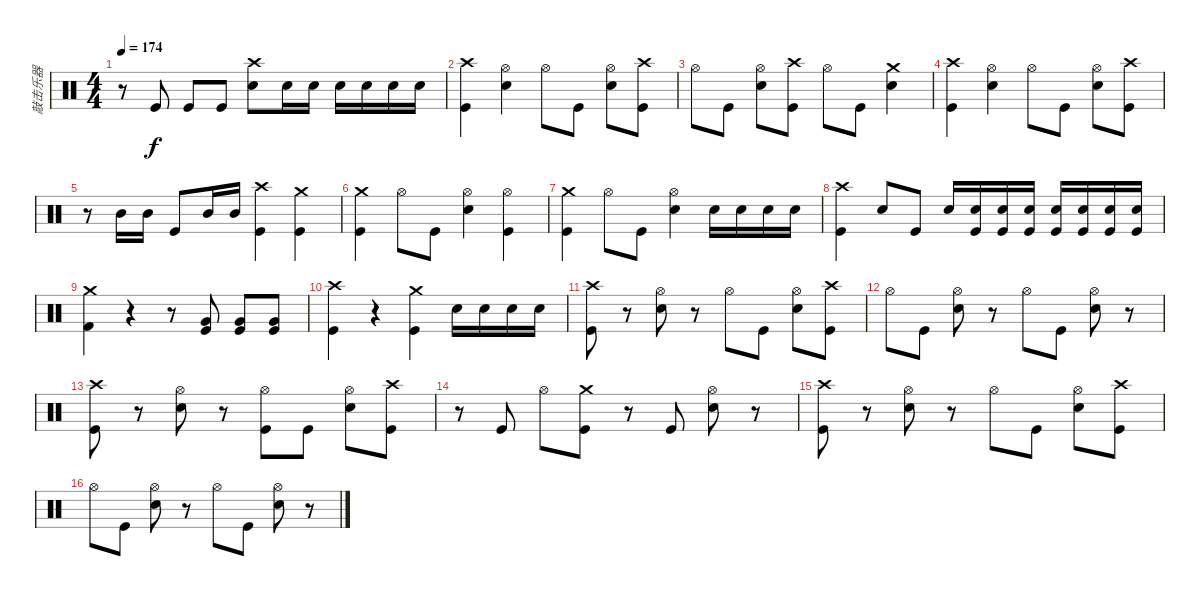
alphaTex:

\track ("敲击乐器" "敲击乐器") {instrument percussion}
\staff {score}
\articulation defaults
\ts (4 4)
\tempo 174
\clef neutral
\ks c
r.8{dy f} "Kick (hit)".8 "Kick (hit)".8 "Kick (hit)".8 ("Crash high (hit)" "Electric Snare (hit)").8 "Electric Snare (hit)".16 "Electric Snare (hit)".16 "Electric Snare (hit)".16 "Electric Snare (hit)".16 "Electric Snare (hit)".16 "Electric Snare (hit)".16 |
("Crash high (hit)" "Kick (hit)").4 ("Hi-Hat (open)" "Electric Snare (hit)").4 "Hi-Hat (open)".8 "Kick (hit)".8 ("Electric Snare (hit)" "Hi-Hat (open)").8 ("Kick (hit)" "Crash high (hit)").8 |
"Hi-Hat (open)".8 "Kick (hit)".8 ("Hi-Hat (open)" "Electric Snare (hit)").8 ("Kick (hit)" "Crash high (hit)").8 "Hi-Hat (open)".8 "Kick (hit)".8 ("Electric Snare (hit)" "Crash medium (hit)").4 |
("Crash high (hit)" "Kick (hit)").4 ("Hi-Hat (open)" "Electric Snare (hit)").4 "Hi-Hat (open)".8 "Kick (hit)".8 ("Electric Snare (hit)" "Hi-Hat (open)").8 ("Kick (hit)" "Crash high (hit)").8 |
r.8 "Mid Tom (hit)".16 "Mid Tom (hit)".16 "Kick (hit)".8 "Mid Tom (hit)".16 "Mid Tom (hit)".16 ("Kick (hit)" "Crash high (hit)").4 ("Kick (hit)" "Crash medium (hit)").4 |
("Kick (hit)" "Crash medium (hit)").4 "Hi-Hat (open)".8 "Kick (hit)".8 ("Hi-Hat (open)" "Electric Snare (hit)").4 ("Kick (hit)" "Hi-Hat (open)").4 |
("Kick (hit)" "Crash medium (hit)").4 "Hi-Hat (open)".8 "Kick (hit)".8 ("Hi-Hat (open)" "Electric Snare (hit)").4 "Electric Snare (hit)".16 "Electric Snare (hit)".16 "Electric Snare (hit)".16 "Electric Snare (hit)".16 |
("Crash high (hit)" "Kick (hit)").4 "Electric Snare (hit)".8 "Kick (hit)".8 "Electric Snare (hit)".16 ("Electric Snare (hit)" "Kick (hit)").16 ("Electric Snare (hit)" "Kick (hit)").16 ("Electric Snare (hit)" "Kick (hit)").16 ("Electric Snare (hit)" "Kick (hit)").16 ("Electric Snare (hit)" "Kick (hit)").16 ("Electric Snare (hit)" "Kick (hit)").16 ("Kick (hit)" "Electric Snare (hit)").16 |
("Kick (hit) 2" "Crash medium (hit)").4 r.4 r.8 ("Very Low Tom (hit)" "Kick (hit)").8 ("Very Low Tom (hit)" "Kick (hit)").8 ("Very Low Tom (hit)" "Kick (hit)").8 |
("Crash high (hit)" "Kick (hit)").4 r.4 ("Crash medium (hit)" "Kick (hit)").4 "Electric Snare (hit)".16 "Electric Snare (hit)".16 "Electric Snare (hit)".16 "Electric Snare (hit)".16 |
("Crash high (hit)" "Kick (hit)").8 r.8 ("Electric Snare (hit)" "Hi-Hat (open)").8 r.8 "Hi-Hat (open)".8 "Kick (hit)".8 ("Electric Snare (hit)" "Hi-Hat (open)").8 ("Kick (hit)" "Crash high (hit)").8 |
"Hi-Hat (open)".8 "Kick (hit)".8 ("Electric Snare (hit)" "Hi-Hat (open)").8 r.8 "Hi-Hat (open)".8 "Kick (hit)".8 ("Electric Snare (hit)" "Hi-Hat (open)").8 r.8 |
("Kick (hit)" "Crash high (hit)").8 r.8 ("Electric Snare (hit)" "Hi-Hat (open)").8 r.8 ("Kick (hit)" "Hi-Hat (open)").8 "Kick (hit)".8 ("Electric Snare (hit)" "Hi-Hat (open)").8 ("Kick (hit)" "Crash high (hit)").8 |
r.8 "Kick (hit)".8 "Hi-Hat (open)".8 ("Kick (hit)" "Crash medium (hit)").8 r.8 "Kick (hit)".8 ("Electric Snare (hit)" "Hi-Hat (open)").8 r.8 |
("Crash high (hit)" "Kick (hit)").8 r.8 ("Electric Snare (hit)" "Hi-Hat (open)").8 r.8 "Hi-Hat (open)".8 "Kick (hit)".8 ("Electric Snare (hit)" "Hi-Hat (open)").8 ("Kick (hit)" "Crash high (hit)").8 |
"Hi-Hat (open)".8 "Kick (hit)".8 ("Electric Snare (hit)" "Hi-Hat (open)").8 r.8 "Hi-Hat (open)".8 "Kick (hit)".8 ("Electric Snare (hit)" "Hi-Hat (open)").8 r.8
